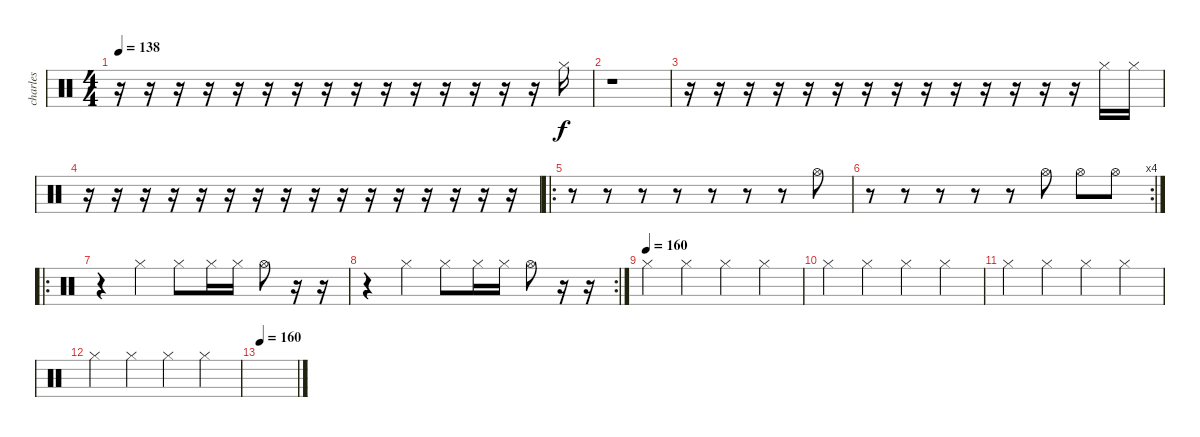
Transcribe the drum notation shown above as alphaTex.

\track ("charles" "charles") {instrument percussion}
\staff {score}
\articulation defaults
\ts (4 4)
\tempo 138
\clef neutral
\ks c
r.16{dy f} r.16 r.16 r.16 r.16 r.16 r.16 r.16 r.16 r.16 r.16 r.16 r.16 r.16 r.16 "Hi-Hat (closed)".16 |
r.1 |
r.16 r.16 r.16 r.16 r.16 r.16 r.16 r.16 r.16 r.16 r.16 r.16 r.16 r.16 "Hi-Hat (closed)".16 "Hi-Hat (closed)".16 |
r.16 r.16 r.16 r.16 r.16 r.16 r.16 r.16 r.16 r.16 r.16 r.16 r.16 r.16 r.16 r.16 |
\ro
r.8 r.8 r.8 r.8 r.8 r.8 r.8 "Hi-Hat (open)".8 |
\rc 4
r.8 r.8 r.8 r.8 r.8 "Hi-Hat (open)".8 "Hi-Hat (open)".8 "Hi-Hat (open)".8 |
\ro
r.4 "Hi-Hat (closed)".4 "Hi-Hat (closed)".8 "Hi-Hat (closed)".16 "Hi-Hat (closed)".16 "Hi-Hat (open)".8 r.16 r.16 |
\rc 2
r.4 "Hi-Hat (closed)".4 "Hi-Hat (closed)".8 "Hi-Hat (closed)".16 "Hi-Hat (closed)".16 "Hi-Hat (open)".8 r.16 r.16 |
\tempo (160)
"Hi-Hat (closed)".4 "Hi-Hat (closed)".4 "Hi-Hat (closed)".4 "Hi-Hat (closed)".4 |
"Hi-Hat (closed)".4 "Hi-Hat (closed)".4 "Hi-Hat (closed)".4 "Hi-Hat (closed)".4 |
"Hi-Hat (closed)".4 "Hi-Hat (closed)".4 "Hi-Hat (closed)".4 "Hi-Hat (closed)".4 |
"Hi-Hat (closed)".4 "Hi-Hat (closed)".4 "Hi-Hat (closed)".4 "Hi-Hat (closed)".4 |
\tempo 160
